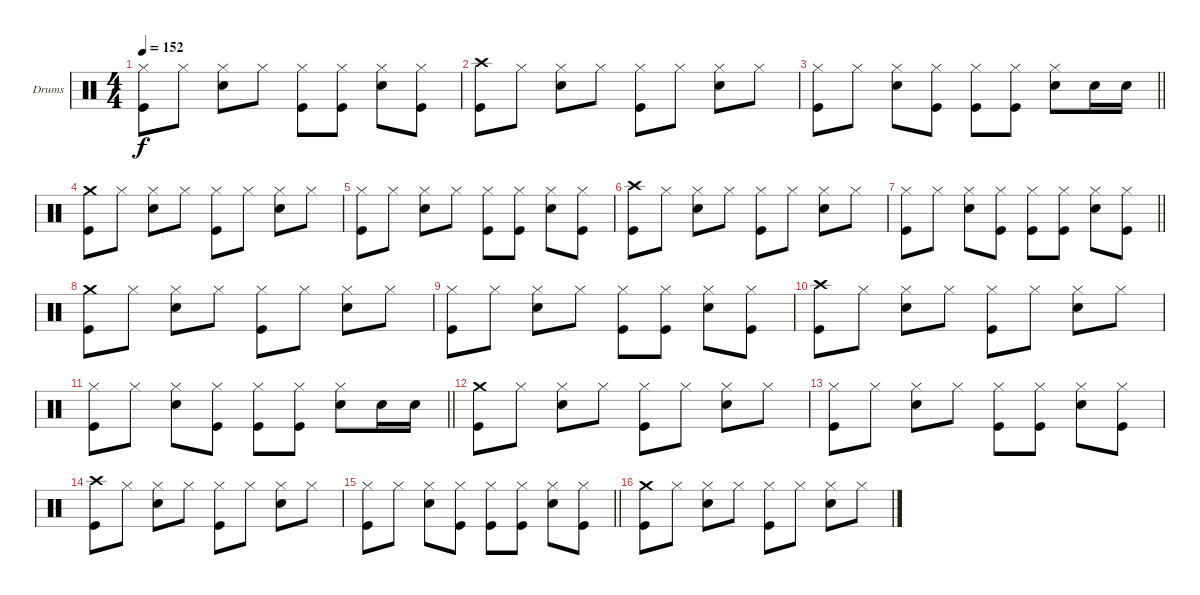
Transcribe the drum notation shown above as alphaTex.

\bracketExtendMode groupsimilarinstruments
\firstSystemTrackNameOrientation horizontal
\otherSystemsTrackNameOrientation horizontal
\track ("Drumkit" "Drums") {instrument percussion}
\staff {score}
\articulation defaults
\ts (4 4)
\tempo 152
\clef neutral
\ks c
("Hi-Hat (closed)" "Kick (hit)").8{dy f} "Hi-Hat (closed)".8 ("Hi-Hat (closed)" "Snare (hit) 2").8 "Hi-Hat (closed)".8 ("Hi-Hat (closed)" "Kick (hit)").8 ("Hi-Hat (closed)" "Kick (hit)").8 ("Hi-Hat (closed)" "Snare (hit) 2").8 ("Hi-Hat (closed)" "Kick (hit)").8 |
("Crash high (hit)" "Kick (hit)").8 "Hi-Hat (closed)".8 ("Hi-Hat (closed)" "Snare (hit) 2").8 "Hi-Hat (closed)".8 ("Hi-Hat (closed)" "Kick (hit)").8 "Hi-Hat (closed)".8 ("Hi-Hat (closed)" "Snare (hit) 2").8 "Hi-Hat (closed)".8 |
\barLineRight lightlight
("Hi-Hat (closed)" "Kick (hit)").8 "Hi-Hat (closed)".8 ("Hi-Hat (closed)" "Snare (hit) 2").8 ("Hi-Hat (closed)" "Kick (hit)").8 ("Hi-Hat (closed)" "Kick (hit)").8 ("Hi-Hat (closed)" "Kick (hit)").8 ("Hi-Hat (closed)" "Snare (hit) 2").8 "Snare (hit) 2".16 "Snare (hit) 2".16 |
("Crash medium (hit)" "Kick (hit)").8 "Hi-Hat (closed)".8 ("Hi-Hat (closed)" "Snare (hit) 2").8 "Hi-Hat (closed)".8 ("Hi-Hat (closed)" "Kick (hit)").8 "Hi-Hat (closed)".8 ("Hi-Hat (closed)" "Snare (hit) 2").8 "Hi-Hat (closed)".8 |
("Hi-Hat (closed)" "Kick (hit)").8 "Hi-Hat (closed)".8 ("Hi-Hat (closed)" "Snare (hit) 2").8 "Hi-Hat (closed)".8 ("Hi-Hat (closed)" "Kick (hit)").8 ("Hi-Hat (closed)" "Kick (hit)").8 ("Hi-Hat (closed)" "Snare (hit) 2").8 ("Hi-Hat (closed)" "Kick (hit)").8 |
("Crash high (hit)" "Kick (hit)").8 "Hi-Hat (closed)".8 ("Hi-Hat (closed)" "Snare (hit) 2").8 "Hi-Hat (closed)".8 ("Hi-Hat (closed)" "Kick (hit)").8 "Hi-Hat (closed)".8 ("Hi-Hat (closed)" "Snare (hit) 2").8 "Hi-Hat (closed)".8 |
\barLineRight lightlight
("Hi-Hat (closed)" "Kick (hit)").8 "Hi-Hat (closed)".8 ("Hi-Hat (closed)" "Snare (hit) 2").8 ("Hi-Hat (closed)" "Kick (hit)").8 ("Hi-Hat (closed)" "Kick (hit)").8 ("Hi-Hat (closed)" "Kick (hit)").8 ("Hi-Hat (closed)" "Snare (hit) 2").8 ("Hi-Hat (closed)" "Kick (hit)").8 |
("Crash medium (hit)" "Kick (hit)").8 "Hi-Hat (closed)".8 ("Hi-Hat (closed)" "Snare (hit) 2").8 "Hi-Hat (closed)".8 ("Hi-Hat (closed)" "Kick (hit)").8 "Hi-Hat (closed)".8 ("Hi-Hat (closed)" "Snare (hit) 2").8 "Hi-Hat (closed)".8 |
("Hi-Hat (closed)" "Kick (hit)").8 "Hi-Hat (closed)".8 ("Hi-Hat (closed)" "Snare (hit) 2").8 "Hi-Hat (closed)".8 ("Hi-Hat (closed)" "Kick (hit)").8 ("Hi-Hat (closed)" "Kick (hit)").8 ("Hi-Hat (closed)" "Snare (hit) 2").8 ("Hi-Hat (closed)" "Kick (hit)").8 |
("Crash high (hit)" "Kick (hit)").8 "Hi-Hat (closed)".8 ("Hi-Hat (closed)" "Snare (hit) 2").8 "Hi-Hat (closed)".8 ("Hi-Hat (closed)" "Kick (hit)").8 "Hi-Hat (closed)".8 ("Hi-Hat (closed)" "Snare (hit) 2").8 "Hi-Hat (closed)".8 |
\barLineRight lightlight
("Hi-Hat (closed)" "Kick (hit)").8 "Hi-Hat (closed)".8 ("Hi-Hat (closed)" "Snare (hit) 2").8 ("Hi-Hat (closed)" "Kick (hit)").8 ("Hi-Hat (closed)" "Kick (hit)").8 ("Hi-Hat (closed)" "Kick (hit)").8 ("Hi-Hat (closed)" "Snare (hit) 2").8 "Snare (hit) 2".16 "Snare (hit) 2".16 |
("Crash medium (hit)" "Kick (hit)").8 "Hi-Hat (closed)".8 ("Hi-Hat (closed)" "Snare (hit) 2").8 "Hi-Hat (closed)".8 ("Hi-Hat (closed)" "Kick (hit)").8 "Hi-Hat (closed)".8 ("Hi-Hat (closed)" "Snare (hit) 2").8 "Hi-Hat (closed)".8 |
("Hi-Hat (closed)" "Kick (hit)").8 "Hi-Hat (closed)".8 ("Hi-Hat (closed)" "Snare (hit) 2").8 "Hi-Hat (closed)".8 ("Hi-Hat (closed)" "Kick (hit)").8 ("Hi-Hat (closed)" "Kick (hit)").8 ("Hi-Hat (closed)" "Snare (hit) 2").8 ("Hi-Hat (closed)" "Kick (hit)").8 |
("Crash high (hit)" "Kick (hit)").8 "Hi-Hat (closed)".8 ("Hi-Hat (closed)" "Snare (hit) 2").8 "Hi-Hat (closed)".8 ("Hi-Hat (closed)" "Kick (hit)").8 "Hi-Hat (closed)".8 ("Hi-Hat (closed)" "Snare (hit) 2").8 "Hi-Hat (closed)".8 |
\barLineRight lightlight
("Hi-Hat (closed)" "Kick (hit)").8 "Hi-Hat (closed)".8 ("Hi-Hat (closed)" "Snare (hit) 2").8 ("Hi-Hat (closed)" "Kick (hit)").8 ("Hi-Hat (closed)" "Kick (hit)").8 ("Hi-Hat (closed)" "Kick (hit)").8 ("Hi-Hat (closed)" "Snare (hit) 2").8 ("Hi-Hat (closed)" "Kick (hit)").8 |
("Crash medium (hit)" "Kick (hit)").8 "Hi-Hat (closed)".8 ("Hi-Hat (closed)" "Snare (hit) 2").8 "Hi-Hat (closed)".8 ("Hi-Hat (closed)" "Kick (hit)").8 "Hi-Hat (closed)".8 ("Hi-Hat (closed)" "Snare (hit) 2").8 "Hi-Hat (closed)".8
